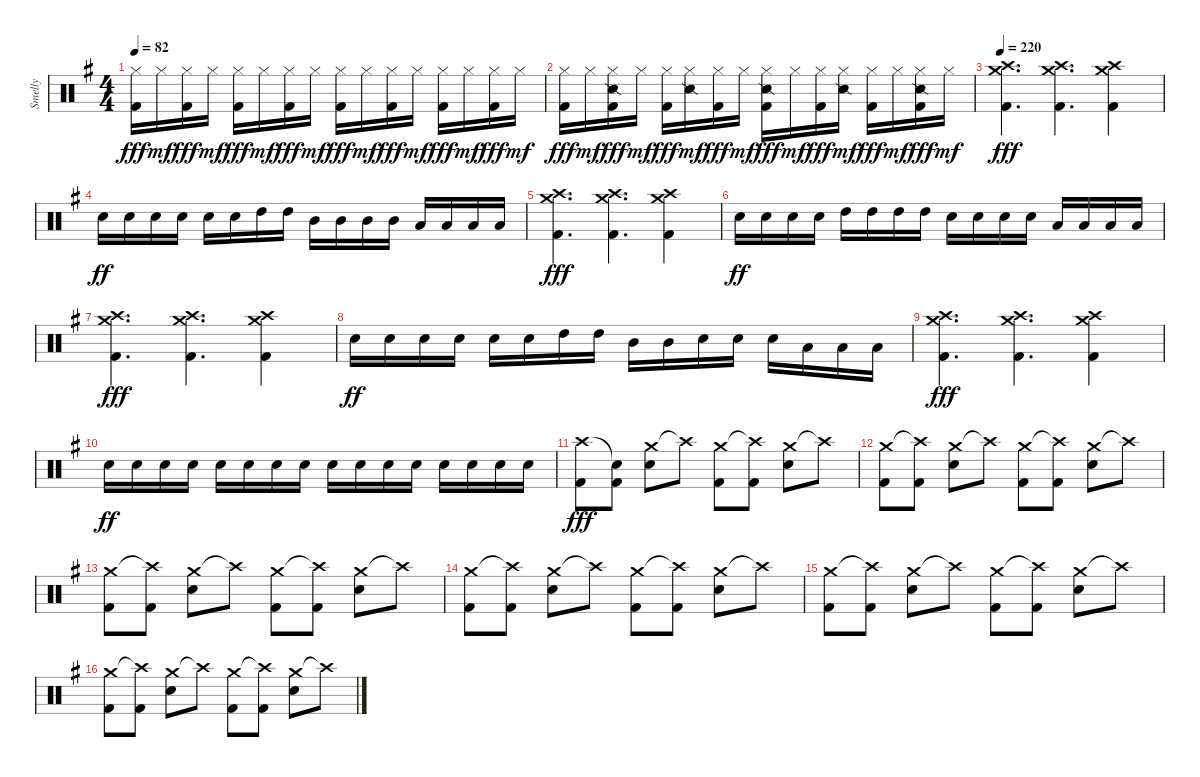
\track ("Smelly" "Smelly") {instrument percussion}
\staff {score}
\articulation defaults
\ts (4 4)
\tempo 82
\clef neutral
\ks eminor
("Hi-Hat (closed)" "Kick (hit) 2").16{dy fff} "Hi-Hat (closed)".16{dy mf} ("Hi-Hat (closed)" "Kick (hit) 2").16{dy fff} "Hi-Hat (closed)".16{dy mf} ("Hi-Hat (closed)" "Kick (hit) 2").16{dy fff} "Hi-Hat (closed)".16{dy mf} ("Hi-Hat (closed)" "Kick (hit) 2").16{dy fff} "Hi-Hat (closed)".16{dy mf} ("Hi-Hat (closed)" "Kick (hit) 2").16{dy fff} "Hi-Hat (closed)".16{dy mf} ("Hi-Hat (closed)" "Kick (hit) 2").16{dy fff} "Hi-Hat (closed)".16{dy mf} ("Hi-Hat (closed)" "Kick (hit) 2").16{dy fff} "Hi-Hat (closed)".16{dy mf} ("Hi-Hat (closed)" "Kick (hit) 2").16{dy fff} "Hi-Hat (closed)".16{dy mf} |
("Hi-Hat (closed)" "Kick (hit) 2").16{dy fff} "Hi-Hat (closed)".16{dy mf} ("Hi-Hat (closed)" "Snare (side stick) 2" "Kick (hit) 2").16{dy fff} "Hi-Hat (closed)".16{dy mf} ("Hi-Hat (closed)" "Kick (hit) 2").16{dy fff} ("Hi-Hat (closed)" "Snare (side stick) 2").16{dy mf} ("Hi-Hat (closed)" "Kick (hit) 2").16{dy fff} "Hi-Hat (closed)".16{dy mf} ("Hi-Hat (closed)" "Snare (side stick) 2" "Kick (hit) 2").16{dy fff} "Hi-Hat (closed)".16{dy mf} ("Hi-Hat (closed)" "Kick (hit) 2").16{dy fff} ("Hi-Hat (closed)" "Snare (side stick) 2").16{dy mf} ("Hi-Hat (closed)" "Kick (hit) 2").16{dy fff} "Hi-Hat (closed)".16{dy mf} ("Hi-Hat (closed)" "Snare (side stick) 2" "Kick (hit) 2").16{dy fff} "Hi-Hat (closed)".16{dy mf} |
\tempo 220
("Crash high (hit)" "Crash medium (hit)" "Kick (hit) 2").4{d dy fff} ("Crash high (hit)" "Crash medium (hit)" "Kick (hit) 2").4{d} ("Crash high (hit)" "Crash medium (hit)" "Kick (hit) 2").4 |
"Electric Snare (hit)".16{dy ff} "Electric Snare (hit)".16 "Electric Snare (hit)".16 "Electric Snare (hit)".16 "Electric Snare (hit)".16 "Electric Snare (hit)".16 "High Tom (hit)".16 "High Tom (hit)".16 "Mid Tom (hit)".16 "Mid Tom (hit)".16 "Mid Tom (hit)".16 "Mid Tom (hit)".16 "Low Tom (hit)".16 "Low Tom (hit)".16 "Low Tom (hit)".16 "Low Tom (hit)".16 |
("Crash high (hit)" "Crash medium (hit)" "Kick (hit) 2").4{d dy fff} ("Crash high (hit)" "Crash medium (hit)" "Kick (hit) 2").4{d} ("Crash high (hit)" "Crash medium (hit)" "Kick (hit) 2").4 |
"Electric Snare (hit)".16{dy ff} "Electric Snare (hit)".16 "Electric Snare (hit)".16 "Electric Snare (hit)".16 "High Tom (hit)".16 "High Tom (hit)".16 "High Tom (hit)".16 "High Tom (hit)".16 "Electric Snare (hit)".16 "Electric Snare (hit)".16 "Electric Snare (hit)".16 "Electric Snare (hit)".16 "Low Tom (hit)".16 "Low Tom (hit)".16 "Low Tom (hit)".16 "Low Tom (hit)".16 |
("Crash high (hit)" "Crash medium (hit)" "Kick (hit) 2").4{d dy fff} ("Crash high (hit)" "Crash medium (hit)" "Kick (hit) 2").4{d} ("Crash high (hit)" "Crash medium (hit)" "Kick (hit) 2").4 |
"Electric Snare (hit)".16{dy ff} "Electric Snare (hit)".16 "Electric Snare (hit)".16 "Electric Snare (hit)".16 "Electric Snare (hit)".16 "Electric Snare (hit)".16 "High Tom (hit)".16 "High Tom (hit)".16 "Mid Tom (hit)".16 "Mid Tom (hit)".16 "Electric Snare (hit)".16 "Electric Snare (hit)".16 "Electric Snare (hit)".16 "Low Tom (hit)".16 "Low Tom (hit)".16 "Low Tom (hit)".16 |
("Crash high (hit)" "Crash medium (hit)" "Kick (hit) 2").4{d dy fff} ("Crash high (hit)" "Crash medium (hit)" "Kick (hit) 2").4{d} ("Crash high (hit)" "Crash medium (hit)" "Kick (hit) 2").4 |
"Electric Snare (hit)".16{dy ff} "Electric Snare (hit)".16 "Electric Snare (hit)".16 "Electric Snare (hit)".16 "Electric Snare (hit)".16 "Electric Snare (hit)".16 "Electric Snare (hit)".16 "Electric Snare (hit)".16 "Electric Snare (hit)".16 "Electric Snare (hit)".16 "Electric Snare (hit)".16 "Electric Snare (hit)".16 "Electric Snare (hit)".16 "Electric Snare (hit)".16 "Electric Snare (hit)".16 "Electric Snare (hit)".16 |
("Crash high (hit)" "Kick (hit) 2").8{dy fff} ("Snare (hit)"{t} "Kick (hit) 2").8 ("Crash medium (hit)" "Electric Snare (hit)").8 "Crash high (hit)"{t}.8 ("Crash medium (hit)" "Kick (hit) 2").8 ("Crash high (hit)"{t} "Kick (hit) 2").8 ("Crash medium (hit)" "Electric Snare (hit)").8 "Crash high (hit)"{t}.8 |
("Crash medium (hit)" "Kick (hit) 2").8 ("Crash high (hit)"{t} "Kick (hit) 2").8 ("Crash medium (hit)" "Electric Snare (hit)").8 "Crash high (hit)"{t}.8 ("Crash medium (hit)" "Kick (hit) 2").8 ("Crash high (hit)"{t} "Kick (hit) 2").8 ("Crash medium (hit)" "Electric Snare (hit)").8 "Crash high (hit)"{t}.8 |
("Crash medium (hit)" "Kick (hit) 2").8 ("Crash high (hit)"{t} "Kick (hit) 2").8 ("Crash medium (hit)" "Electric Snare (hit)").8 "Crash high (hit)"{t}.8 ("Crash medium (hit)" "Kick (hit) 2").8 ("Crash high (hit)"{t} "Kick (hit) 2").8 ("Crash medium (hit)" "Electric Snare (hit)").8 "Crash high (hit)"{t}.8 |
("Crash medium (hit)" "Kick (hit) 2").8 ("Crash high (hit)"{t} "Kick (hit) 2").8 ("Crash medium (hit)" "Electric Snare (hit)").8 "Crash high (hit)"{t}.8 ("Crash medium (hit)" "Kick (hit) 2").8 ("Crash high (hit)"{t} "Kick (hit) 2").8 ("Crash medium (hit)" "Electric Snare (hit)").8 "Crash high (hit)"{t}.8 |
("Crash medium (hit)" "Kick (hit) 2").8 ("Crash high (hit)"{t} "Kick (hit) 2").8 ("Crash medium (hit)" "Electric Snare (hit)").8 "Crash high (hit)"{t}.8 ("Crash medium (hit)" "Kick (hit) 2").8 ("Crash high (hit)"{t} "Kick (hit) 2").8 ("Crash medium (hit)" "Electric Snare (hit)").8 "Crash high (hit)"{t}.8 |
("Crash medium (hit)" "Kick (hit) 2").8 ("Crash high (hit)"{t} "Kick (hit) 2").8 ("Crash medium (hit)" "Electric Snare (hit)").8 "Crash high (hit)"{t}.8 ("Crash medium (hit)" "Kick (hit) 2").8 ("Crash high (hit)"{t} "Kick (hit) 2").8 ("Crash medium (hit)" "Electric Snare (hit)").8 "Crash high (hit)"{t}.8
